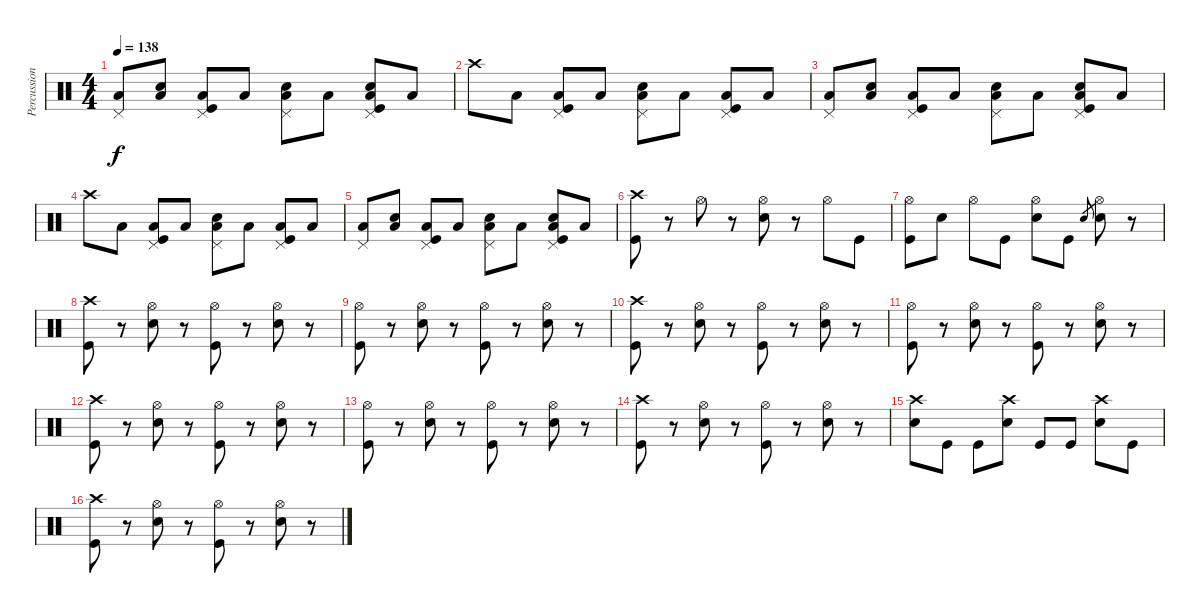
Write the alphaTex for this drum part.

\track ("Percussion" "Percussion") {instrument percussion}
\staff {score}
\articulation defaults
\ts (4 4)
\tempo 138
\clef neutral
\ks c
("Low Tom (hit)" "Pedal Hi-Hat (hit)").8{dy f} ("Snare (hit) 2" "Low Tom (hit)").8 ("Low Tom (hit)" "Pedal Hi-Hat (hit)" "Kick (hit)").8 "Low Tom (hit)".8 ("Snare (hit) 2" "Low Tom (hit)" "Pedal Hi-Hat (hit)").8 "Low Tom (hit)".8 ("Snare (hit) 2" "Low Tom (hit)" "Pedal Hi-Hat (hit)" "Kick (hit)").8 "Low Tom (hit)".8 |
"Crash high (hit)".8 "Low Tom (hit)".8 ("Low Tom (hit)" "Pedal Hi-Hat (hit)" "Kick (hit)").8 "Low Tom (hit)".8 ("Snare (hit) 2" "Low Tom (hit)" "Pedal Hi-Hat (hit)").8 "Low Tom (hit)".8 ("Low Tom (hit)" "Pedal Hi-Hat (hit)" "Kick (hit)").8 "Low Tom (hit)".8 |
("Low Tom (hit)" "Pedal Hi-Hat (hit)").8 ("Snare (hit) 2" "Low Tom (hit)").8 ("Low Tom (hit)" "Pedal Hi-Hat (hit)" "Kick (hit)").8 "Low Tom (hit)".8 ("Snare (hit) 2" "Low Tom (hit)" "Pedal Hi-Hat (hit)").8 "Low Tom (hit)".8 ("Snare (hit) 2" "Low Tom (hit)" "Pedal Hi-Hat (hit)" "Kick (hit)").8 "Low Tom (hit)".8 |
"Crash high (hit)".8 "Low Tom (hit)".8 ("Low Tom (hit)" "Pedal Hi-Hat (hit)" "Kick (hit)").8 "Low Tom (hit)".8 ("Snare (hit) 2" "Low Tom (hit)" "Pedal Hi-Hat (hit)").8 "Low Tom (hit)".8 ("Low Tom (hit)" "Pedal Hi-Hat (hit)" "Kick (hit)").8 "Low Tom (hit)".8 |
("Low Tom (hit)" "Pedal Hi-Hat (hit)").8 ("Snare (hit) 2" "Low Tom (hit)").8 ("Low Tom (hit)" "Pedal Hi-Hat (hit)" "Kick (hit)").8 "Low Tom (hit)".8 ("Snare (hit) 2" "Low Tom (hit)" "Pedal Hi-Hat (hit)").8 "Low Tom (hit)".8 ("Snare (hit) 2" "Low Tom (hit)" "Pedal Hi-Hat (hit)" "Kick (hit)").8 "Low Tom (hit)".8 |
("Crash high (hit)" "Kick (hit)").8 r.8 "Hi-Hat (open)".8 r.8 ("Snare (hit) 2" "Hi-Hat (open)").8 r.8 "Hi-Hat (open)".8 "Kick (hit)".8 |
("Hi-Hat (open)" "Kick (hit)").8 "Snare (hit) 2".8 "Hi-Hat (open)".8 "Kick (hit)".8 ("Snare (hit) 2" "Hi-Hat (open)").8 "Kick (hit)".8 "Snare (hit) 2".8{gr} ("Snare (hit) 2" "Hi-Hat (open)").8 r.8 |
("Crash high (hit)" "Kick (hit)").8 r.8 ("Snare (hit) 2" "Hi-Hat (open)").8 r.8 ("Hi-Hat (open)" "Kick (hit)").8 r.8 ("Snare (hit) 2" "Hi-Hat (open)").8 r.8 |
("Hi-Hat (open)" "Kick (hit)").8 r.8 ("Snare (hit) 2" "Hi-Hat (open)").8 r.8 ("Hi-Hat (open)" "Kick (hit)").8 r.8 ("Snare (hit) 2" "Hi-Hat (open)").8 r.8 |
("Crash high (hit)" "Kick (hit)").8 r.8 ("Snare (hit) 2" "Hi-Hat (open)").8 r.8 ("Hi-Hat (open)" "Kick (hit)").8 r.8 ("Snare (hit) 2" "Hi-Hat (open)").8 r.8 |
("Hi-Hat (open)" "Kick (hit)").8 r.8 ("Snare (hit) 2" "Hi-Hat (open)").8 r.8 ("Hi-Hat (open)" "Kick (hit)").8 r.8 ("Snare (hit) 2" "Hi-Hat (open)").8 r.8 |
("Crash high (hit)" "Kick (hit)").8 r.8 ("Snare (hit) 2" "Hi-Hat (open)").8 r.8 ("Hi-Hat (open)" "Kick (hit)").8 r.8 ("Snare (hit) 2" "Hi-Hat (open)").8 r.8 |
("Hi-Hat (open)" "Kick (hit)").8 r.8 ("Snare (hit) 2" "Hi-Hat (open)").8 r.8 ("Hi-Hat (open)" "Kick (hit)").8 r.8 ("Snare (hit) 2" "Hi-Hat (open)").8 r.8 |
("Crash high (hit)" "Kick (hit)").8 r.8 ("Snare (hit) 2" "Hi-Hat (open)").8 r.8 ("Hi-Hat (open)" "Kick (hit)").8 r.8 ("Snare (hit) 2" "Hi-Hat (open)").8 r.8 |
("Snare (hit) 2" "Crash high (hit)").8 "Kick (hit)".8 "Kick (hit)".8 ("Snare (hit) 2" "Crash high (hit)").8 "Kick (hit)".8 "Kick (hit)".8 ("Snare (hit) 2" "Crash high (hit)").8 "Kick (hit)".8 |
("Crash high (hit)" "Kick (hit)").8 r.8 ("Snare (hit) 2" "Hi-Hat (open)").8 r.8 ("Hi-Hat (open)" "Kick (hit)").8 r.8 ("Snare (hit) 2" "Hi-Hat (open)").8 r.8
